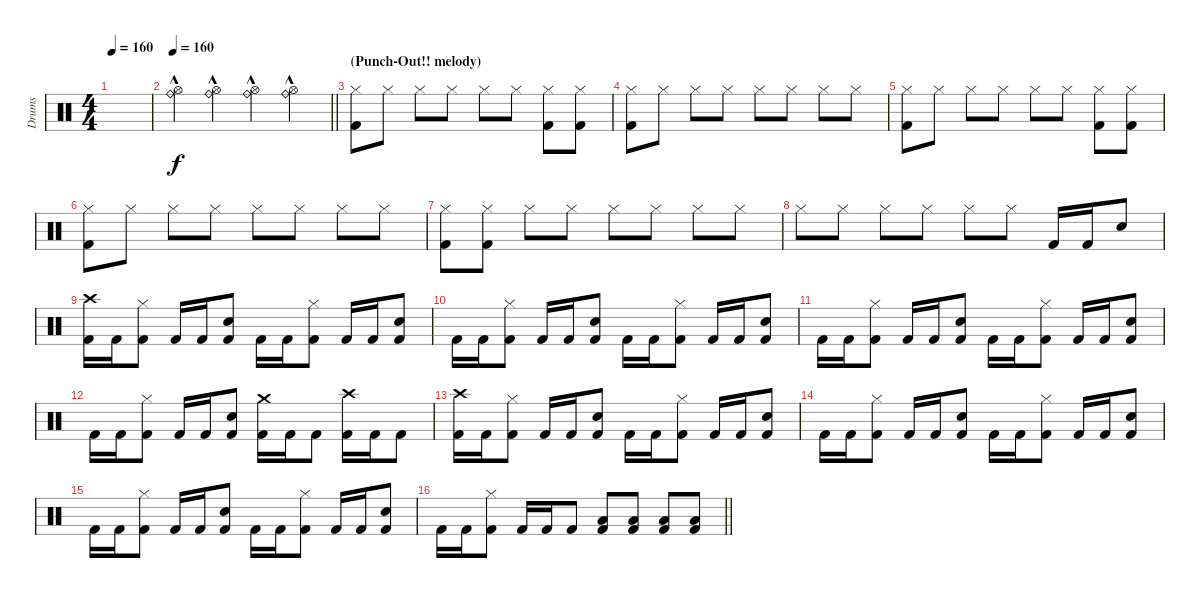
\track ("Drums" "Drums") {instrument percussion}
\staff {score}
\articulation defaults
\ts (4 4)
\tempo 160
\clef neutral
\ks c
|
\tempo 160
\barLineRight lightlight
("Ride (bell)"{hac} "Hi-Hat (open)").4 ("Ride (bell)"{hac} "Hi-Hat (open)").4 ("Ride (bell)"{hac} "Hi-Hat (open)").4 ("Ride (bell)"{hac} "Hi-Hat (open)").4 |
\section ("" "(Punch-Out!! melody)")
("Hi-Hat (closed)" "Kick (hit) 2").8{dy f} "Hi-Hat (closed)".8 "Hi-Hat (closed)".8 "Hi-Hat (closed)".8 "Hi-Hat (closed)".8 "Hi-Hat (closed)".8 ("Hi-Hat (closed)" "Kick (hit) 2").8 ("Hi-Hat (closed)" "Kick (hit) 2").8 |
("Hi-Hat (closed)" "Kick (hit) 2").8 "Hi-Hat (closed)".8 "Hi-Hat (closed)".8 "Hi-Hat (closed)".8 "Hi-Hat (closed)".8 "Hi-Hat (closed)".8 "Hi-Hat (closed)".8 "Hi-Hat (closed)".8 |
("Hi-Hat (closed)" "Kick (hit) 2").8 "Hi-Hat (closed)".8 "Hi-Hat (closed)".8 "Hi-Hat (closed)".8 "Hi-Hat (closed)".8 "Hi-Hat (closed)".8 ("Hi-Hat (closed)" "Kick (hit) 2").8 ("Hi-Hat (closed)" "Kick (hit) 2").8 |
("Hi-Hat (closed)" "Kick (hit) 2").8 "Hi-Hat (closed)".8 "Hi-Hat (closed)".8 "Hi-Hat (closed)".8 "Hi-Hat (closed)".8 "Hi-Hat (closed)".8 "Hi-Hat (closed)".8 "Hi-Hat (closed)".8 |
("Hi-Hat (closed)" "Kick (hit) 2").8 ("Hi-Hat (closed)" "Kick (hit) 2").8 "Hi-Hat (closed)".8 "Hi-Hat (closed)".8 "Hi-Hat (closed)".8 "Hi-Hat (closed)".8 "Hi-Hat (closed)".8 "Hi-Hat (closed)".8 |
"Hi-Hat (closed)".8 "Hi-Hat (closed)".8 "Hi-Hat (closed)".8 "Hi-Hat (closed)".8 "Hi-Hat (closed)".8 "Hi-Hat (closed)".8 "Kick (hit) 2".16 "Kick (hit) 2".16 "Electric Snare (hit)".8 |
("Crash high (hit)" "Kick (hit) 2").16 "Kick (hit) 2".16 ("Hi-Hat (closed)" "Kick (hit) 2").8 "Kick (hit) 2".16 "Kick (hit) 2".16 ("Electric Snare (hit)" "Kick (hit) 2").8 "Kick (hit) 2".16 "Kick (hit) 2".16 ("Hi-Hat (closed)" "Kick (hit) 2").8 "Kick (hit) 2".16 "Kick (hit) 2".16 ("Electric Snare (hit)" "Kick (hit) 2").8 |
"Kick (hit) 2".16 "Kick (hit) 2".16 ("Hi-Hat (closed)" "Kick (hit) 2").8 "Kick (hit) 2".16 "Kick (hit) 2".16 ("Electric Snare (hit)" "Kick (hit) 2").8 "Kick (hit) 2".16 "Kick (hit) 2".16 ("Hi-Hat (closed)" "Kick (hit) 2").8 "Kick (hit) 2".16 "Kick (hit) 2".16 ("Electric Snare (hit)" "Kick (hit) 2").8 |
"Kick (hit) 2".16 "Kick (hit) 2".16 ("Hi-Hat (closed)" "Kick (hit) 2").8 "Kick (hit) 2".16 "Kick (hit) 2".16 ("Electric Snare (hit)" "Kick (hit) 2").8 "Kick (hit) 2".16 "Kick (hit) 2".16 ("Hi-Hat (closed)" "Kick (hit) 2").8 "Kick (hit) 2".16 "Kick (hit) 2".16 ("Electric Snare (hit)" "Kick (hit) 2").8 |
"Kick (hit) 2".16 "Kick (hit) 2".16 ("Hi-Hat (closed)" "Kick (hit) 2").8 "Kick (hit) 2".16 "Kick (hit) 2".16 ("Electric Snare (hit)" "Kick (hit) 2").8 ("Crash medium (hit)" "Kick (hit) 2").16 "Kick (hit) 2".16 "Kick (hit) 2".8 ("Crash high (hit)" "Kick (hit) 2").16 "Kick (hit) 2".16 "Kick (hit) 2".8 |
("Crash high (hit)" "Kick (hit) 2").16 "Kick (hit) 2".16 ("Hi-Hat (closed)" "Kick (hit) 2").8 "Kick (hit) 2".16 "Kick (hit) 2".16 ("Electric Snare (hit)" "Kick (hit) 2").8 "Kick (hit) 2".16 "Kick (hit) 2".16 ("Hi-Hat (closed)" "Kick (hit) 2").8 "Kick (hit) 2".16 "Kick (hit) 2".16 ("Electric Snare (hit)" "Kick (hit) 2").8 |
"Kick (hit) 2".16 "Kick (hit) 2".16 ("Hi-Hat (closed)" "Kick (hit) 2").8 "Kick (hit) 2".16 "Kick (hit) 2".16 ("Electric Snare (hit)" "Kick (hit) 2").8 "Kick (hit) 2".16 "Kick (hit) 2".16 ("Hi-Hat (closed)" "Kick (hit) 2").8 "Kick (hit) 2".16 "Kick (hit) 2".16 ("Electric Snare (hit)" "Kick (hit) 2").8 |
"Kick (hit) 2".16 "Kick (hit) 2".16 ("Hi-Hat (closed)" "Kick (hit) 2").8 "Kick (hit) 2".16 "Kick (hit) 2".16 ("Electric Snare (hit)" "Kick (hit) 2").8 "Kick (hit) 2".16 "Kick (hit) 2".16 ("Hi-Hat (closed)" "Kick (hit) 2").8 "Kick (hit) 2".16 "Kick (hit) 2".16 ("Electric Snare (hit)" "Kick (hit) 2").8 |
\barLineRight lightlight "Kick (hit) 2".16 "Kick (hit) 2".16
("Hi-Hat (closed)" "Kick (hit) 2").8 "Kick (hit) 2".16 "Kick (hit) 2".16 "Kick (hit) 2".8 ("Low Floor Tom (hit)" "Kick (hit) 2").8 ("Low Floor Tom (hit)" "Kick (hit) 2").8 ("Low Floor Tom (hit)" "Kick (hit) 2").8 ("Low Floor Tom (hit)" "Kick (hit) 2").8
